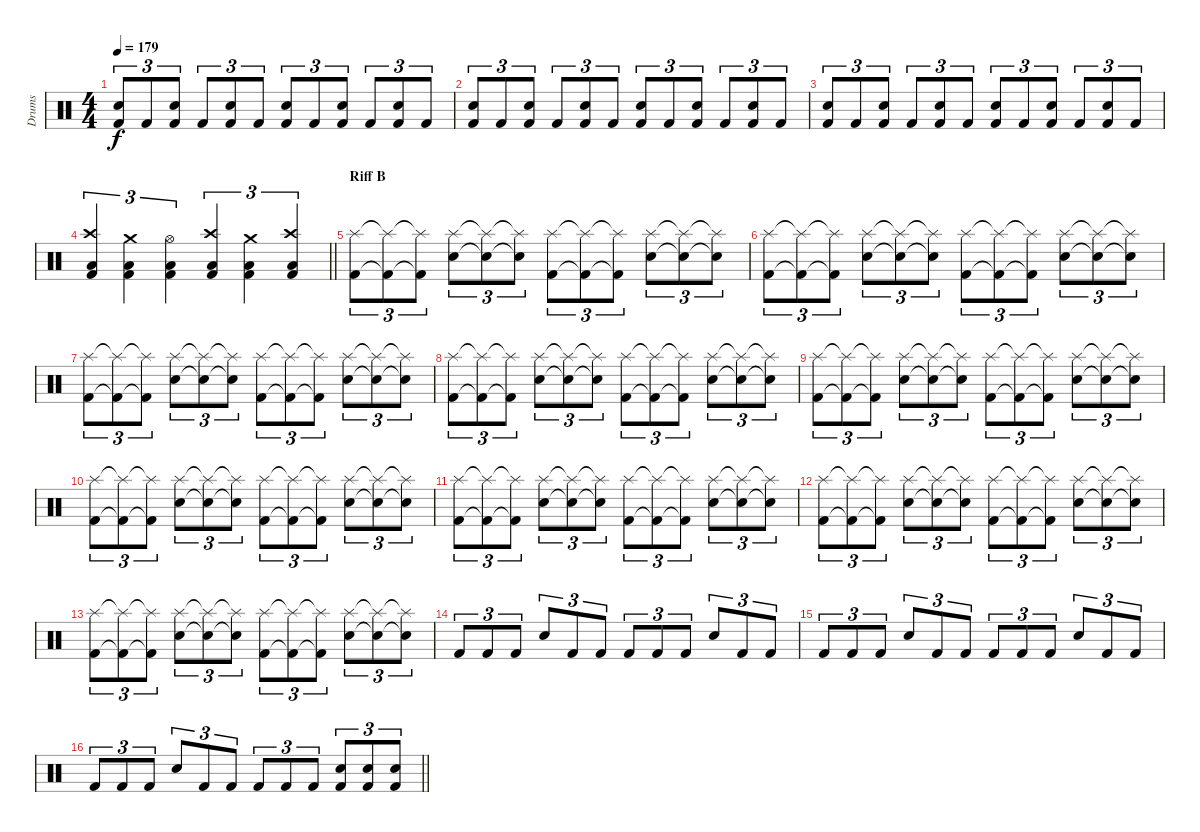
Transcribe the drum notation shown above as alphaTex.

\track ("Drums" "Drums") {instrument percussion}
\staff {score}
\articulation defaults
\ts (4 4)
\tempo 179
\clef neutral
\ks c
("Electric Snare (hit)" "Kick (hit) 2").8{tu (3 2) dy f} "Kick (hit) 2".8{tu (3 2)} ("Electric Snare (hit)" "Kick (hit) 2").8{tu (3 2)} "Kick (hit) 2".8{tu (3 2)} ("Electric Snare (hit)" "Kick (hit) 2").8{tu (3 2)} "Kick (hit) 2".8{tu (3 2)} ("Electric Snare (hit)" "Kick (hit) 2").8{tu (3 2)} "Kick (hit) 2".8{tu (3 2)} ("Electric Snare (hit)" "Kick (hit) 2").8{tu (3 2)} "Kick (hit) 2".8{tu (3 2)} ("Electric Snare (hit)" "Kick (hit) 2").8{tu (3 2)} "Kick (hit) 2".8{tu (3 2)} |
("Electric Snare (hit)" "Kick (hit) 2").8{tu (3 2)} "Kick (hit) 2".8{tu (3 2)} ("Electric Snare (hit)" "Kick (hit) 2").8{tu (3 2)} "Kick (hit) 2".8{tu (3 2)} ("Electric Snare (hit)" "Kick (hit) 2").8{tu (3 2)} "Kick (hit) 2".8{tu (3 2)} ("Electric Snare (hit)" "Kick (hit) 2").8{tu (3 2)} "Kick (hit) 2".8{tu (3 2)} ("Electric Snare (hit)" "Kick (hit) 2").8{tu (3 2)} "Kick (hit) 2".8{tu (3 2)} ("Electric Snare (hit)" "Kick (hit) 2").8{tu (3 2)} "Kick (hit) 2".8{tu (3 2)} |
("Electric Snare (hit)" "Kick (hit) 2").8{tu (3 2)} "Kick (hit) 2".8{tu (3 2)} ("Electric Snare (hit)" "Kick (hit) 2").8{tu (3 2)} "Kick (hit) 2".8{tu (3 2)} ("Electric Snare (hit)" "Kick (hit) 2").8{tu (3 2)} "Kick (hit) 2".8{tu (3 2)} ("Electric Snare (hit)" "Kick (hit) 2").8{tu (3 2)} "Kick (hit) 2".8{tu (3 2)} ("Electric Snare (hit)" "Kick (hit) 2").8{tu (3 2)} "Kick (hit) 2".8{tu (3 2)} ("Electric Snare (hit)" "Kick (hit) 2").8{tu (3 2)} "Kick (hit) 2".8{tu (3 2)} |
\barLineRight lightlight
("Crash high (hit)" "Low Floor Tom (hit)" "Kick (hit) 2").4{tu (3 2)} ("Crash medium (hit)" "Low Floor Tom (hit)" "Kick (hit) 2").4{tu (3 2)} ("Hi-Hat (open)" "Low Floor Tom (hit)" "Kick (hit) 2").4{tu (3 2)} ("Crash high (hit)" "Low Floor Tom (hit)" "Kick (hit) 2").4{tu (3 2)} ("Crash medium (hit)" "Low Floor Tom (hit)" "Kick (hit) 2").4{tu (3 2)} ("Crash high (hit)" "Low Floor Tom (hit)" "Kick (hit) 2").4{tu (3 2)} |
\section ("" "Riff B")
("Splash (hit)" "Kick (hit) 2").8{tu (3 2)} ("Splash (hit)"{t} "Kick (hit) 2"{t}).8{tu (3 2)} ("Splash (hit)"{t} "Kick (hit) 2"{t}).8{tu (3 2)} ("Splash (hit)" "Electric Snare (hit)").8{tu (3 2)} ("Splash (hit)"{t} "Electric Snare (hit)"{t}).8{tu (3 2)} ("Splash (hit)"{t} "Electric Snare (hit)"{t}).8{tu (3 2)} ("Splash (hit)" "Kick (hit) 2").8{tu (3 2)} ("Splash (hit)"{t} "Kick (hit) 2"{t}).8{tu (3 2)} ("Splash (hit)"{t} "Kick (hit) 2"{t}).8{tu (3 2)} ("Splash (hit)" "Electric Snare (hit)").8{tu (3 2)} ("Splash (hit)"{t} "Electric Snare (hit)"{t}).8{tu (3 2)} ("Splash (hit)"{t} "Electric Snare (hit)"{t}).8{tu (3 2)} |
("Splash (hit)" "Kick (hit) 2").8{tu (3 2)} ("Splash (hit)"{t} "Kick (hit) 2"{t}).8{tu (3 2)} ("Splash (hit)"{t} "Kick (hit) 2"{t}).8{tu (3 2)} ("Splash (hit)" "Electric Snare (hit)").8{tu (3 2)} ("Splash (hit)"{t} "Electric Snare (hit)"{t}).8{tu (3 2)} ("Splash (hit)"{t} "Electric Snare (hit)"{t}).8{tu (3 2)} ("Splash (hit)" "Kick (hit) 2").8{tu (3 2)} ("Splash (hit)"{t} "Kick (hit) 2"{t}).8{tu (3 2)} ("Splash (hit)"{t} "Kick (hit) 2"{t}).8{tu (3 2)} ("Splash (hit)" "Electric Snare (hit)").8{tu (3 2)} ("Splash (hit)"{t} "Electric Snare (hit)"{t}).8{tu (3 2)} ("Splash (hit)"{t} "Electric Snare (hit)"{t}).8{tu (3 2)} |
("Splash (hit)" "Kick (hit) 2").8{tu (3 2)} ("Splash (hit)"{t} "Kick (hit) 2"{t}).8{tu (3 2)} ("Splash (hit)"{t} "Kick (hit) 2"{t}).8{tu (3 2)} ("Splash (hit)" "Electric Snare (hit)").8{tu (3 2)} ("Splash (hit)"{t} "Electric Snare (hit)"{t}).8{tu (3 2)} ("Splash (hit)"{t} "Electric Snare (hit)"{t}).8{tu (3 2)} ("Splash (hit)" "Kick (hit) 2").8{tu (3 2)} ("Splash (hit)"{t} "Kick (hit) 2"{t}).8{tu (3 2)} ("Splash (hit)"{t} "Kick (hit) 2"{t}).8{tu (3 2)} ("Splash (hit)" "Electric Snare (hit)").8{tu (3 2)} ("Splash (hit)"{t} "Electric Snare (hit)"{t}).8{tu (3 2)} ("Splash (hit)"{t} "Electric Snare (hit)"{t}).8{tu (3 2)} |
("Splash (hit)" "Kick (hit) 2").8{tu (3 2)} ("Splash (hit)"{t} "Kick (hit) 2"{t}).8{tu (3 2)} ("Splash (hit)"{t} "Kick (hit) 2"{t}).8{tu (3 2)} ("Splash (hit)" "Electric Snare (hit)").8{tu (3 2)} ("Splash (hit)"{t} "Electric Snare (hit)"{t}).8{tu (3 2)} ("Splash (hit)"{t} "Electric Snare (hit)"{t}).8{tu (3 2)} ("Splash (hit)" "Kick (hit) 2").8{tu (3 2)} ("Splash (hit)"{t} "Kick (hit) 2"{t}).8{tu (3 2)} ("Splash (hit)"{t} "Kick (hit) 2"{t}).8{tu (3 2)} ("Splash (hit)" "Electric Snare (hit)").8{tu (3 2)} ("Splash (hit)"{t} "Electric Snare (hit)"{t}).8{tu (3 2)} ("Splash (hit)"{t} "Electric Snare (hit)"{t}).8{tu (3 2)} |
("Splash (hit)" "Kick (hit) 2").8{tu (3 2)} ("Splash (hit)"{t} "Kick (hit) 2"{t}).8{tu (3 2)} ("Splash (hit)"{t} "Kick (hit) 2"{t}).8{tu (3 2)} ("Splash (hit)" "Electric Snare (hit)").8{tu (3 2)} ("Splash (hit)"{t} "Electric Snare (hit)"{t}).8{tu (3 2)} ("Splash (hit)"{t} "Electric Snare (hit)"{t}).8{tu (3 2)} ("Splash (hit)" "Kick (hit) 2").8{tu (3 2)} ("Splash (hit)"{t} "Kick (hit) 2"{t}).8{tu (3 2)} ("Splash (hit)"{t} "Kick (hit) 2"{t}).8{tu (3 2)} ("Splash (hit)" "Electric Snare (hit)").8{tu (3 2)} ("Splash (hit)"{t} "Electric Snare (hit)"{t}).8{tu (3 2)} ("Splash (hit)"{t} "Electric Snare (hit)"{t}).8{tu (3 2)} |
("Splash (hit)" "Kick (hit) 2").8{tu (3 2)} ("Splash (hit)"{t} "Kick (hit) 2"{t}).8{tu (3 2)} ("Splash (hit)"{t} "Kick (hit) 2"{t}).8{tu (3 2)} ("Splash (hit)" "Electric Snare (hit)").8{tu (3 2)} ("Splash (hit)"{t} "Electric Snare (hit)"{t}).8{tu (3 2)} ("Splash (hit)"{t} "Electric Snare (hit)"{t}).8{tu (3 2)} ("Splash (hit)" "Kick (hit) 2").8{tu (3 2)} ("Splash (hit)"{t} "Kick (hit) 2"{t}).8{tu (3 2)} ("Splash (hit)"{t} "Kick (hit) 2"{t}).8{tu (3 2)} ("Splash (hit)" "Electric Snare (hit)").8{tu (3 2)} ("Splash (hit)"{t} "Electric Snare (hit)"{t}).8{tu (3 2)} ("Splash (hit)"{t} "Electric Snare (hit)"{t}).8{tu (3 2)} |
("Splash (hit)" "Kick (hit) 2").8{tu (3 2)} ("Splash (hit)"{t} "Kick (hit) 2"{t}).8{tu (3 2)} ("Splash (hit)"{t} "Kick (hit) 2"{t}).8{tu (3 2)} ("Splash (hit)" "Electric Snare (hit)").8{tu (3 2)} ("Splash (hit)"{t} "Electric Snare (hit)"{t}).8{tu (3 2)} ("Splash (hit)"{t} "Electric Snare (hit)"{t}).8{tu (3 2)} ("Splash (hit)" "Kick (hit) 2").8{tu (3 2)} ("Splash (hit)"{t} "Kick (hit) 2"{t}).8{tu (3 2)} ("Splash (hit)"{t} "Kick (hit) 2"{t}).8{tu (3 2)} ("Splash (hit)" "Electric Snare (hit)").8{tu (3 2)} ("Splash (hit)"{t} "Electric Snare (hit)"{t}).8{tu (3 2)} ("Splash (hit)"{t} "Electric Snare (hit)"{t}).8{tu (3 2)} |
("Splash (hit)" "Kick (hit) 2").8{tu (3 2)} ("Splash (hit)"{t} "Kick (hit) 2"{t}).8{tu (3 2)} ("Splash (hit)"{t} "Kick (hit) 2"{t}).8{tu (3 2)} ("Splash (hit)" "Electric Snare (hit)").8{tu (3 2)} ("Splash (hit)"{t} "Electric Snare (hit)"{t}).8{tu (3 2)} ("Splash (hit)"{t} "Electric Snare (hit)"{t}).8{tu (3 2)} ("Splash (hit)" "Kick (hit) 2").8{tu (3 2)} ("Splash (hit)"{t} "Kick (hit) 2"{t}).8{tu (3 2)} ("Splash (hit)"{t} "Kick (hit) 2"{t}).8{tu (3 2)} ("Splash (hit)" "Electric Snare (hit)").8{tu (3 2)} ("Splash (hit)"{t} "Electric Snare (hit)"{t}).8{tu (3 2)} ("Splash (hit)"{t} "Electric Snare (hit)"{t}).8{tu (3 2)} |
("Splash (hit)" "Kick (hit) 2").8{tu (3 2)} ("Splash (hit)"{t} "Kick (hit) 2"{t}).8{tu (3 2)} ("Splash (hit)"{t} "Kick (hit) 2"{t}).8{tu (3 2)} ("Splash (hit)" "Electric Snare (hit)").8{tu (3 2)} ("Splash (hit)"{t} "Electric Snare (hit)"{t}).8{tu (3 2)} ("Splash (hit)"{t} "Electric Snare (hit)"{t}).8{tu (3 2)} ("Splash (hit)" "Kick (hit) 2").8{tu (3 2)} ("Splash (hit)"{t} "Kick (hit) 2"{t}).8{tu (3 2)} ("Splash (hit)"{t} "Kick (hit) 2"{t}).8{tu (3 2)} ("Splash (hit)" "Electric Snare (hit)").8{tu (3 2)} ("Splash (hit)"{t} "Electric Snare (hit)"{t}).8{tu (3 2)} ("Splash (hit)"{t} "Electric Snare (hit)"{t}).8{tu (3 2)} |
"Kick (hit) 2".8{tu (3 2)} "Kick (hit) 2".8{tu (3 2)} "Kick (hit) 2".8{tu (3 2)} "Electric Snare (hit)".8{tu (3 2)} "Kick (hit) 2".8{tu (3 2)} "Kick (hit) 2".8{tu (3 2)} "Kick (hit) 2".8{tu (3 2)} "Kick (hit) 2".8{tu (3 2)} "Kick (hit) 2".8{tu (3 2)} "Electric Snare (hit)".8{tu (3 2)} "Kick (hit) 2".8{tu (3 2)} "Kick (hit) 2".8{tu (3 2)} |
"Kick (hit) 2".8{tu (3 2)} "Kick (hit) 2".8{tu (3 2)} "Kick (hit) 2".8{tu (3 2)} "Electric Snare (hit)".8{tu (3 2)} "Kick (hit) 2".8{tu (3 2)} "Kick (hit) 2".8{tu (3 2)} "Kick (hit) 2".8{tu (3 2)} "Kick (hit) 2".8{tu (3 2)} "Kick (hit) 2".8{tu (3 2)} "Electric Snare (hit)".8{tu (3 2)} "Kick (hit) 2".8{tu (3 2)} "Kick (hit) 2".8{tu (3 2)} |
\barLineRight lightlight "Kick (hit) 2".8{tu (3 2)} "Kick (hit) 2".8{tu (3 2)} "Kick (hit) 2".8{tu (3 2)} "Electric Snare (hit)".8{tu (3 2)} "Kick (hit) 2".8{tu (3 2)} "Kick (hit) 2".8{tu (3 2)} "Kick (hit) 2".8{tu (3 2)} "Kick (hit) 2".8{tu (3 2)} "Kick (hit) 2".8{tu (3 2)}
("Electric Snare (hit)" "Kick (hit) 2").8{tu (3 2)} ("Electric Snare (hit)" "Kick (hit) 2").8{tu (3 2)} ("Electric Snare (hit)" "Kick (hit) 2").8{tu (3 2)}
